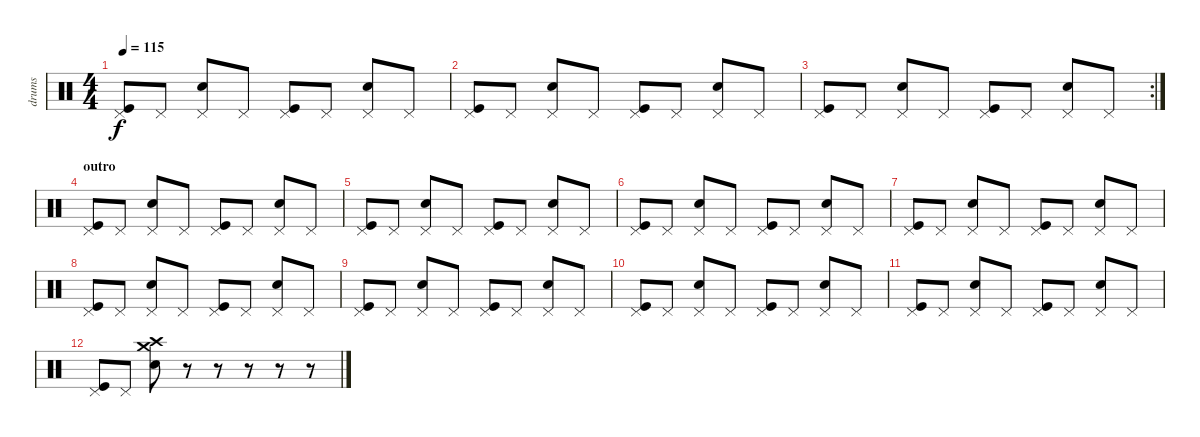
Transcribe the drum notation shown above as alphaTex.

\track ("drums" "drums") {instrument percussion}
\staff {score}
\articulation defaults
\ts (4 4)
\tempo 115
\clef neutral
\ks c
("Pedal Hi-Hat (hit)" "Kick (hit)").8{dy f} "Pedal Hi-Hat (hit)".8 ("Pedal Hi-Hat (hit)" "Electric Snare (hit)").8 "Pedal Hi-Hat (hit)".8 ("Pedal Hi-Hat (hit)" "Kick (hit)").8 "Pedal Hi-Hat (hit)".8 ("Pedal Hi-Hat (hit)" "Electric Snare (hit)").8 "Pedal Hi-Hat (hit)".8 |
("Pedal Hi-Hat (hit)" "Kick (hit)").8 "Pedal Hi-Hat (hit)".8 ("Pedal Hi-Hat (hit)" "Electric Snare (hit)").8 "Pedal Hi-Hat (hit)".8 ("Pedal Hi-Hat (hit)" "Kick (hit)").8 "Pedal Hi-Hat (hit)".8 ("Pedal Hi-Hat (hit)" "Electric Snare (hit)").8 "Pedal Hi-Hat (hit)".8 |
\rc 2
("Pedal Hi-Hat (hit)" "Kick (hit)").8 "Pedal Hi-Hat (hit)".8 ("Pedal Hi-Hat (hit)" "Electric Snare (hit)").8 "Pedal Hi-Hat (hit)".8 ("Pedal Hi-Hat (hit)" "Kick (hit)").8 "Pedal Hi-Hat (hit)".8 ("Pedal Hi-Hat (hit)" "Electric Snare (hit)").8 "Pedal Hi-Hat (hit)".8 |
\section ("" "outro")
("Pedal Hi-Hat (hit)" "Kick (hit)").8 "Pedal Hi-Hat (hit)".8 ("Pedal Hi-Hat (hit)" "Electric Snare (hit)").8 "Pedal Hi-Hat (hit)".8 ("Pedal Hi-Hat (hit)" "Kick (hit)").8 "Pedal Hi-Hat (hit)".8 ("Pedal Hi-Hat (hit)" "Electric Snare (hit)").8 "Pedal Hi-Hat (hit)".8 |
("Pedal Hi-Hat (hit)" "Kick (hit)").8 "Pedal Hi-Hat (hit)".8 ("Pedal Hi-Hat (hit)" "Electric Snare (hit)").8 "Pedal Hi-Hat (hit)".8 ("Pedal Hi-Hat (hit)" "Kick (hit)").8 "Pedal Hi-Hat (hit)".8 ("Pedal Hi-Hat (hit)" "Electric Snare (hit)").8 "Pedal Hi-Hat (hit)".8 |
("Pedal Hi-Hat (hit)" "Kick (hit)").8 "Pedal Hi-Hat (hit)".8 ("Pedal Hi-Hat (hit)" "Electric Snare (hit)").8 "Pedal Hi-Hat (hit)".8 ("Pedal Hi-Hat (hit)" "Kick (hit)").8 "Pedal Hi-Hat (hit)".8 ("Pedal Hi-Hat (hit)" "Electric Snare (hit)").8 "Pedal Hi-Hat (hit)".8 |
("Pedal Hi-Hat (hit)" "Kick (hit)").8 "Pedal Hi-Hat (hit)".8 ("Pedal Hi-Hat (hit)" "Electric Snare (hit)").8 "Pedal Hi-Hat (hit)".8 ("Pedal Hi-Hat (hit)" "Kick (hit)").8 "Pedal Hi-Hat (hit)".8 ("Pedal Hi-Hat (hit)" "Electric Snare (hit)").8 "Pedal Hi-Hat (hit)".8 |
("Pedal Hi-Hat (hit)" "Kick (hit)").8 "Pedal Hi-Hat (hit)".8 ("Pedal Hi-Hat (hit)" "Electric Snare (hit)").8 "Pedal Hi-Hat (hit)".8 ("Pedal Hi-Hat (hit)" "Kick (hit)").8 "Pedal Hi-Hat (hit)".8 ("Pedal Hi-Hat (hit)" "Electric Snare (hit)").8 "Pedal Hi-Hat (hit)".8 |
("Pedal Hi-Hat (hit)" "Kick (hit)").8 "Pedal Hi-Hat (hit)".8 ("Pedal Hi-Hat (hit)" "Electric Snare (hit)").8 "Pedal Hi-Hat (hit)".8 ("Pedal Hi-Hat (hit)" "Kick (hit)").8 "Pedal Hi-Hat (hit)".8 ("Pedal Hi-Hat (hit)" "Electric Snare (hit)").8 "Pedal Hi-Hat (hit)".8 |
("Pedal Hi-Hat (hit)" "Kick (hit)").8 "Pedal Hi-Hat (hit)".8 ("Pedal Hi-Hat (hit)" "Electric Snare (hit)").8 "Pedal Hi-Hat (hit)".8 ("Pedal Hi-Hat (hit)" "Kick (hit)").8 "Pedal Hi-Hat (hit)".8 ("Pedal Hi-Hat (hit)" "Electric Snare (hit)").8 "Pedal Hi-Hat (hit)".8 |
("Pedal Hi-Hat (hit)" "Kick (hit)").8 "Pedal Hi-Hat (hit)".8 ("Pedal Hi-Hat (hit)" "Electric Snare (hit)").8 "Pedal Hi-Hat (hit)".8 ("Pedal Hi-Hat (hit)" "Kick (hit)").8 "Pedal Hi-Hat (hit)".8 ("Pedal Hi-Hat (hit)" "Electric Snare (hit)").8 "Pedal Hi-Hat (hit)".8 |
("Pedal Hi-Hat (hit)" "Kick (hit)").8 "Pedal Hi-Hat (hit)".8 ("Crash medium (hit)" "Crash high (hit)" "Electric Snare (hit)").8 r.8 r.8 r.8 r.8 r.8
